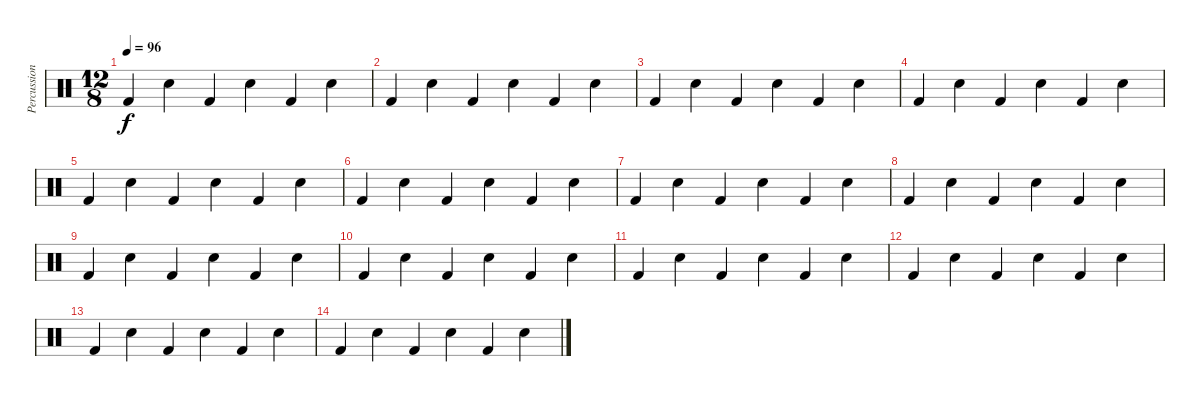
\track ("Percussion" "Percussion") {instrument percussion}
\staff {score}
\articulation defaults
\ts (12 8)
\tempo 96
\clef neutral
\ks c "Kick (hit) 2".4{dy f} "Snare (hit) 2".4 "Kick (hit) 2".4 "Snare (hit) 2".4 "Kick (hit) 2".4 "Snare (hit) 2".4
|
"Kick (hit) 2".4 "Snare (hit) 2".4 "Kick (hit) 2".4 "Snare (hit) 2".4 "Kick (hit) 2".4 "Snare (hit) 2".4 |
"Kick (hit) 2".4 "Snare (hit) 2".4 "Kick (hit) 2".4 "Snare (hit) 2".4 "Kick (hit) 2".4 "Snare (hit) 2".4 |
"Kick (hit) 2".4 "Snare (hit) 2".4 "Kick (hit) 2".4 "Snare (hit) 2".4 "Kick (hit) 2".4 "Snare (hit) 2".4 |
"Kick (hit) 2".4 "Snare (hit) 2".4 "Kick (hit) 2".4 "Snare (hit) 2".4 "Kick (hit) 2".4 "Snare (hit) 2".4 |
"Kick (hit) 2".4 "Snare (hit) 2".4 "Kick (hit) 2".4 "Snare (hit) 2".4 "Kick (hit) 2".4 "Snare (hit) 2".4 |
"Kick (hit) 2".4 "Snare (hit) 2".4 "Kick (hit) 2".4 "Snare (hit) 2".4 "Kick (hit) 2".4 "Snare (hit) 2".4 |
"Kick (hit) 2".4 "Snare (hit) 2".4 "Kick (hit) 2".4 "Snare (hit) 2".4 "Kick (hit) 2".4 "Snare (hit) 2".4 |
"Kick (hit) 2".4 "Snare (hit) 2".4 "Kick (hit) 2".4 "Snare (hit) 2".4 "Kick (hit) 2".4 "Snare (hit) 2".4 |
"Kick (hit) 2".4 "Snare (hit) 2".4 "Kick (hit) 2".4 "Snare (hit) 2".4 "Kick (hit) 2".4 "Snare (hit) 2".4 |
"Kick (hit) 2".4 "Snare (hit) 2".4 "Kick (hit) 2".4 "Snare (hit) 2".4 "Kick (hit) 2".4 "Snare (hit) 2".4 |
"Kick (hit) 2".4 "Snare (hit) 2".4 "Kick (hit) 2".4 "Snare (hit) 2".4 "Kick (hit) 2".4 "Snare (hit) 2".4 |
"Kick (hit) 2".4 "Snare (hit) 2".4 "Kick (hit) 2".4 "Snare (hit) 2".4 "Kick (hit) 2".4 "Snare (hit) 2".4 |
"Kick (hit) 2".4 "Snare (hit) 2".4 "Kick (hit) 2".4 "Snare (hit) 2".4 "Kick (hit) 2".4 "Snare (hit) 2".4
